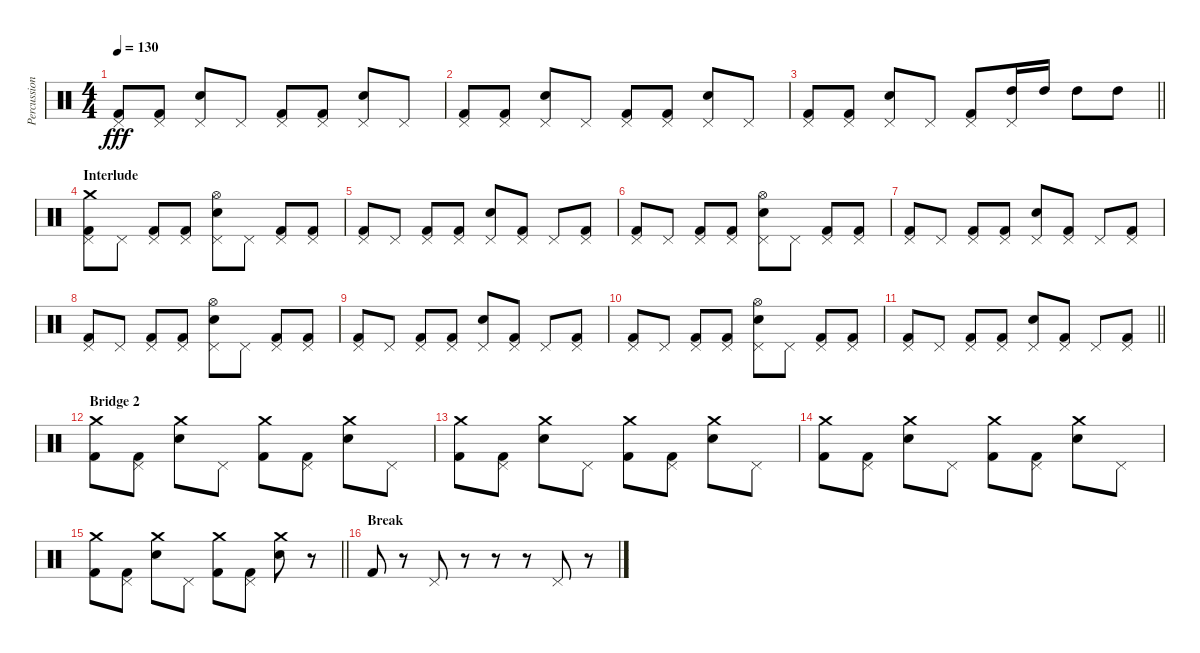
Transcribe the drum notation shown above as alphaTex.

\track ("Percussion" "Percussion") {instrument percussion}
\staff {score}
\articulation defaults
\ts (4 4)
\tempo 130
\clef neutral
\ks c
("Pedal Hi-Hat (hit)" "Kick (hit) 2").8{dy fff} ("Pedal Hi-Hat (hit)" "Kick (hit) 2").8 ("Pedal Hi-Hat (hit)" "Electric Snare (hit)").8 "Pedal Hi-Hat (hit)".8 ("Pedal Hi-Hat (hit)" "Kick (hit) 2").8 ("Pedal Hi-Hat (hit)" "Kick (hit) 2").8 ("Pedal Hi-Hat (hit)" "Electric Snare (hit)").8 "Pedal Hi-Hat (hit)".8 |
("Pedal Hi-Hat (hit)" "Kick (hit) 2").8 ("Pedal Hi-Hat (hit)" "Kick (hit) 2").8 ("Pedal Hi-Hat (hit)" "Electric Snare (hit)").8 "Pedal Hi-Hat (hit)".8 ("Pedal Hi-Hat (hit)" "Kick (hit) 2").8 ("Pedal Hi-Hat (hit)" "Kick (hit) 2").8 ("Pedal Hi-Hat (hit)" "Electric Snare (hit)").8 "Pedal Hi-Hat (hit)".8 |
\barLineRight lightlight
("Pedal Hi-Hat (hit)" "Kick (hit) 2").8 ("Pedal Hi-Hat (hit)" "Kick (hit) 2").8 ("Pedal Hi-Hat (hit)" "Electric Snare (hit)").8 "Pedal Hi-Hat (hit)".8 ("Pedal Hi-Hat (hit)" "Kick (hit) 2").8 ("Pedal Hi-Hat (hit)" "High Tom (hit)").16 "High Tom (hit)".16 "High Tom (hit)".8 "High Tom (hit)".8 |
\section ("" "Interlude")
("Pedal Hi-Hat (hit)" "Crash medium (hit)" "Kick (hit) 2").8 "Pedal Hi-Hat (hit)".8 ("Pedal Hi-Hat (hit)" "Kick (hit) 2").8 ("Pedal Hi-Hat (hit)" "Kick (hit) 2").8 ("Pedal Hi-Hat (hit)" "Hi-Hat (open)" "Electric Snare (hit)").8 "Pedal Hi-Hat (hit)".8 ("Pedal Hi-Hat (hit)" "Kick (hit) 2").8 ("Pedal Hi-Hat (hit)" "Kick (hit) 2").8 |
("Pedal Hi-Hat (hit)" "Kick (hit) 2").8 "Pedal Hi-Hat (hit)".8 ("Pedal Hi-Hat (hit)" "Kick (hit) 2").8 ("Pedal Hi-Hat (hit)" "Kick (hit) 2").8 ("Pedal Hi-Hat (hit)" "Electric Snare (hit)").8 ("Pedal Hi-Hat (hit)" "Kick (hit) 2").8 "Pedal Hi-Hat (hit)".8 ("Pedal Hi-Hat (hit)" "Kick (hit) 2").8 |
("Pedal Hi-Hat (hit)" "Kick (hit) 2").8 "Pedal Hi-Hat (hit)".8 ("Pedal Hi-Hat (hit)" "Kick (hit) 2").8 ("Pedal Hi-Hat (hit)" "Kick (hit) 2").8 ("Pedal Hi-Hat (hit)" "Hi-Hat (open)" "Electric Snare (hit)").8 "Pedal Hi-Hat (hit)".8 ("Pedal Hi-Hat (hit)" "Kick (hit) 2").8 ("Pedal Hi-Hat (hit)" "Kick (hit) 2").8 |
("Pedal Hi-Hat (hit)" "Kick (hit) 2").8 "Pedal Hi-Hat (hit)".8 ("Pedal Hi-Hat (hit)" "Kick (hit) 2").8 ("Pedal Hi-Hat (hit)" "Kick (hit) 2").8 ("Pedal Hi-Hat (hit)" "Electric Snare (hit)").8 ("Pedal Hi-Hat (hit)" "Kick (hit) 2").8 "Pedal Hi-Hat (hit)".8 ("Pedal Hi-Hat (hit)" "Kick (hit) 2").8 |
("Pedal Hi-Hat (hit)" "Kick (hit) 2").8 "Pedal Hi-Hat (hit)".8 ("Pedal Hi-Hat (hit)" "Kick (hit) 2").8 ("Pedal Hi-Hat (hit)" "Kick (hit) 2").8 ("Pedal Hi-Hat (hit)" "Hi-Hat (open)" "Electric Snare (hit)").8 "Pedal Hi-Hat (hit)".8 ("Pedal Hi-Hat (hit)" "Kick (hit) 2").8 ("Pedal Hi-Hat (hit)" "Kick (hit) 2").8 |
("Pedal Hi-Hat (hit)" "Kick (hit) 2").8 "Pedal Hi-Hat (hit)".8 ("Pedal Hi-Hat (hit)" "Kick (hit) 2").8 ("Pedal Hi-Hat (hit)" "Kick (hit) 2").8 ("Pedal Hi-Hat (hit)" "Electric Snare (hit)").8 ("Pedal Hi-Hat (hit)" "Kick (hit) 2").8 "Pedal Hi-Hat (hit)".8 ("Pedal Hi-Hat (hit)" "Kick (hit) 2").8 |
("Pedal Hi-Hat (hit)" "Kick (hit) 2").8 "Pedal Hi-Hat (hit)".8 ("Pedal Hi-Hat (hit)" "Kick (hit) 2").8 ("Pedal Hi-Hat (hit)" "Kick (hit) 2").8 ("Pedal Hi-Hat (hit)" "Hi-Hat (open)" "Electric Snare (hit)").8 "Pedal Hi-Hat (hit)".8 ("Pedal Hi-Hat (hit)" "Kick (hit) 2").8 ("Pedal Hi-Hat (hit)" "Kick (hit) 2").8 |
\barLineRight lightlight
("Pedal Hi-Hat (hit)" "Kick (hit) 2").8 "Pedal Hi-Hat (hit)".8 ("Pedal Hi-Hat (hit)" "Kick (hit) 2").8 ("Pedal Hi-Hat (hit)" "Kick (hit) 2").8 ("Pedal Hi-Hat (hit)" "Electric Snare (hit)").8 ("Pedal Hi-Hat (hit)" "Kick (hit) 2").8 "Pedal Hi-Hat (hit)".8 ("Pedal Hi-Hat (hit)" "Kick (hit) 2").8 |
\section ("" "Bridge 2")
("Crash medium (hit)" "Kick (hit) 2").8 ("Pedal Hi-Hat (hit)" "Kick (hit) 2").8 ("Crash medium (hit)" "Electric Snare (hit)").8 "Pedal Hi-Hat (hit)".8 ("Crash medium (hit)" "Kick (hit) 2").8 ("Pedal Hi-Hat (hit)" "Kick (hit) 2").8 ("Crash medium (hit)" "Electric Snare (hit)").8 "Pedal Hi-Hat (hit)".8 |
("Crash medium (hit)" "Kick (hit) 2").8 ("Pedal Hi-Hat (hit)" "Kick (hit) 2").8 ("Crash medium (hit)" "Electric Snare (hit)").8 "Pedal Hi-Hat (hit)".8 ("Crash medium (hit)" "Kick (hit) 2").8 ("Pedal Hi-Hat (hit)" "Kick (hit) 2").8 ("Crash medium (hit)" "Electric Snare (hit)").8 "Pedal Hi-Hat (hit)".8 |
("Crash medium (hit)" "Kick (hit) 2").8 ("Pedal Hi-Hat (hit)" "Kick (hit) 2").8 ("Crash medium (hit)" "Electric Snare (hit)").8 "Pedal Hi-Hat (hit)".8 ("Crash medium (hit)" "Kick (hit) 2").8 ("Pedal Hi-Hat (hit)" "Kick (hit) 2").8 ("Crash medium (hit)" "Electric Snare (hit)").8 "Pedal Hi-Hat (hit)".8 |
\barLineRight lightlight
("Crash medium (hit)" "Kick (hit) 2").8 ("Pedal Hi-Hat (hit)" "Kick (hit) 2").8 ("Crash medium (hit)" "Electric Snare (hit)").8 "Pedal Hi-Hat (hit)".8 ("Crash medium (hit)" "Kick (hit) 2").8 ("Pedal Hi-Hat (hit)" "Kick (hit) 2").8 ("Crash medium (hit)" "Electric Snare (hit)").8 r.8 |
\section ("" "Break")
"Kick (hit) 2".8 r.8 "Pedal Hi-Hat (hit)".8 r.8 r.8 r.8 "Pedal Hi-Hat (hit)".8 r.8
